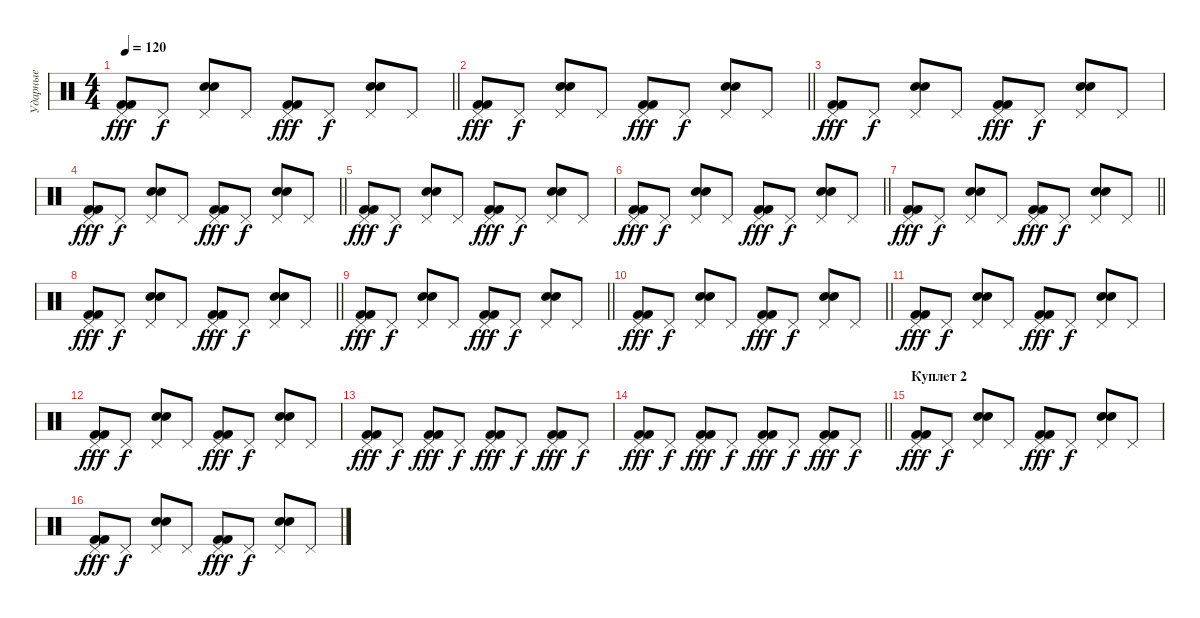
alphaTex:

\track ("Ударные" "Ударные") {solo instrument percussion}
\staff {score}
\articulation defaults
\ts (4 4)
\tempo 120
\clef neutral
\barLineRight lightlight
\ks c
("Kick (hit) 2" "Kick (hit) 2" "Pedal Hi-Hat (hit)").8{dy fff} "Pedal Hi-Hat (hit)".8{dy f} ("Electric Snare (hit)" "Electric Snare (hit)" "Pedal Hi-Hat (hit)").8 "Pedal Hi-Hat (hit)".8 ("Kick (hit) 2" "Kick (hit) 2" "Pedal Hi-Hat (hit)").8{dy fff} "Pedal Hi-Hat (hit)".8{dy f} ("Electric Snare (hit)" "Electric Snare (hit)" "Pedal Hi-Hat (hit)").8 "Pedal Hi-Hat (hit)".8 |
\barLineRight lightlight
("Kick (hit) 2" "Kick (hit) 2" "Pedal Hi-Hat (hit)").8{dy fff} "Pedal Hi-Hat (hit)".8{dy f} ("Electric Snare (hit)" "Electric Snare (hit)" "Pedal Hi-Hat (hit)").8 "Pedal Hi-Hat (hit)".8 ("Kick (hit) 2" "Kick (hit) 2" "Pedal Hi-Hat (hit)").8{dy fff} "Pedal Hi-Hat (hit)".8{dy f} ("Electric Snare (hit)" "Electric Snare (hit)" "Pedal Hi-Hat (hit)").8 "Pedal Hi-Hat (hit)".8 |
("Kick (hit) 2" "Kick (hit) 2" "Pedal Hi-Hat (hit)").8{dy fff} "Pedal Hi-Hat (hit)".8{dy f} ("Electric Snare (hit)" "Electric Snare (hit)" "Pedal Hi-Hat (hit)").8 "Pedal Hi-Hat (hit)".8 ("Kick (hit) 2" "Kick (hit) 2" "Pedal Hi-Hat (hit)").8{dy fff} "Pedal Hi-Hat (hit)".8{dy f} ("Electric Snare (hit)" "Electric Snare (hit)" "Pedal Hi-Hat (hit)").8 "Pedal Hi-Hat (hit)".8 |
\barLineRight lightlight
("Kick (hit) 2" "Kick (hit) 2" "Pedal Hi-Hat (hit)").8{dy fff} "Pedal Hi-Hat (hit)".8{dy f} ("Electric Snare (hit)" "Electric Snare (hit)" "Pedal Hi-Hat (hit)").8 "Pedal Hi-Hat (hit)".8 ("Kick (hit) 2" "Kick (hit) 2" "Pedal Hi-Hat (hit)").8{dy fff} "Pedal Hi-Hat (hit)".8{dy f} ("Electric Snare (hit)" "Electric Snare (hit)" "Pedal Hi-Hat (hit)").8 "Pedal Hi-Hat (hit)".8 |
("Kick (hit) 2" "Kick (hit) 2" "Pedal Hi-Hat (hit)").8{dy fff} "Pedal Hi-Hat (hit)".8{dy f} ("Electric Snare (hit)" "Electric Snare (hit)" "Pedal Hi-Hat (hit)").8 "Pedal Hi-Hat (hit)".8 ("Kick (hit) 2" "Kick (hit) 2" "Pedal Hi-Hat (hit)").8{dy fff} "Pedal Hi-Hat (hit)".8{dy f} ("Electric Snare (hit)" "Electric Snare (hit)" "Pedal Hi-Hat (hit)").8 "Pedal Hi-Hat (hit)".8 |
\barLineRight lightlight
("Kick (hit) 2" "Kick (hit) 2" "Pedal Hi-Hat (hit)").8{dy fff} "Pedal Hi-Hat (hit)".8{dy f} ("Electric Snare (hit)" "Electric Snare (hit)" "Pedal Hi-Hat (hit)").8 "Pedal Hi-Hat (hit)".8 ("Kick (hit) 2" "Kick (hit) 2" "Pedal Hi-Hat (hit)").8{dy fff} "Pedal Hi-Hat (hit)".8{dy f} ("Electric Snare (hit)" "Electric Snare (hit)" "Pedal Hi-Hat (hit)").8 "Pedal Hi-Hat (hit)".8 |
\barLineRight lightlight
("Kick (hit) 2" "Kick (hit) 2" "Pedal Hi-Hat (hit)").8{dy fff} "Pedal Hi-Hat (hit)".8{dy f} ("Electric Snare (hit)" "Electric Snare (hit)" "Pedal Hi-Hat (hit)").8 "Pedal Hi-Hat (hit)".8 ("Kick (hit) 2" "Kick (hit) 2" "Pedal Hi-Hat (hit)").8{dy fff} "Pedal Hi-Hat (hit)".8{dy f} ("Electric Snare (hit)" "Electric Snare (hit)" "Pedal Hi-Hat (hit)").8 "Pedal Hi-Hat (hit)".8 |
\barLineRight lightlight
("Kick (hit) 2" "Kick (hit) 2" "Pedal Hi-Hat (hit)").8{dy fff} "Pedal Hi-Hat (hit)".8{dy f} ("Electric Snare (hit)" "Electric Snare (hit)" "Pedal Hi-Hat (hit)").8 "Pedal Hi-Hat (hit)".8 ("Kick (hit) 2" "Kick (hit) 2" "Pedal Hi-Hat (hit)").8{dy fff} "Pedal Hi-Hat (hit)".8{dy f} ("Electric Snare (hit)" "Electric Snare (hit)" "Pedal Hi-Hat (hit)").8 "Pedal Hi-Hat (hit)".8 |
\barLineRight lightlight
("Kick (hit) 2" "Kick (hit) 2" "Pedal Hi-Hat (hit)").8{dy fff} "Pedal Hi-Hat (hit)".8{dy f} ("Electric Snare (hit)" "Electric Snare (hit)" "Pedal Hi-Hat (hit)").8 "Pedal Hi-Hat (hit)".8 ("Kick (hit) 2" "Kick (hit) 2" "Pedal Hi-Hat (hit)").8{dy fff} "Pedal Hi-Hat (hit)".8{dy f} ("Electric Snare (hit)" "Electric Snare (hit)" "Pedal Hi-Hat (hit)").8 "Pedal Hi-Hat (hit)".8 |
\barLineRight lightlight
("Kick (hit) 2" "Kick (hit) 2" "Pedal Hi-Hat (hit)").8{dy fff} "Pedal Hi-Hat (hit)".8{dy f} ("Electric Snare (hit)" "Electric Snare (hit)" "Pedal Hi-Hat (hit)").8 "Pedal Hi-Hat (hit)".8 ("Kick (hit) 2" "Kick (hit) 2" "Pedal Hi-Hat (hit)").8{dy fff} "Pedal Hi-Hat (hit)".8{dy f} ("Electric Snare (hit)" "Electric Snare (hit)" "Pedal Hi-Hat (hit)").8 "Pedal Hi-Hat (hit)".8 |
("Kick (hit) 2" "Kick (hit) 2" "Pedal Hi-Hat (hit)").8{dy fff} "Pedal Hi-Hat (hit)".8{dy f} ("Electric Snare (hit)" "Electric Snare (hit)" "Pedal Hi-Hat (hit)").8 "Pedal Hi-Hat (hit)".8 ("Kick (hit) 2" "Kick (hit) 2" "Pedal Hi-Hat (hit)").8{dy fff} "Pedal Hi-Hat (hit)".8{dy f} ("Electric Snare (hit)" "Electric Snare (hit)" "Pedal Hi-Hat (hit)").8 "Pedal Hi-Hat (hit)".8 |
("Kick (hit) 2" "Kick (hit) 2" "Pedal Hi-Hat (hit)").8{dy fff} "Pedal Hi-Hat (hit)".8{dy f} ("Electric Snare (hit)" "Electric Snare (hit)" "Pedal Hi-Hat (hit)").8 "Pedal Hi-Hat (hit)".8 ("Kick (hit) 2" "Kick (hit) 2" "Pedal Hi-Hat (hit)").8{dy fff} "Pedal Hi-Hat (hit)".8{dy f} ("Electric Snare (hit)" "Electric Snare (hit)" "Pedal Hi-Hat (hit)").8 "Pedal Hi-Hat (hit)".8 |
("Kick (hit) 2" "Kick (hit) 2" "Pedal Hi-Hat (hit)").8{dy fff} "Pedal Hi-Hat (hit)".8{dy f} ("Kick (hit) 2" "Kick (hit) 2" "Pedal Hi-Hat (hit)").8{dy fff} "Pedal Hi-Hat (hit)".8{dy f} ("Kick (hit) 2" "Kick (hit) 2" "Pedal Hi-Hat (hit)").8{dy fff} "Pedal Hi-Hat (hit)".8{dy f} ("Kick (hit) 2" "Kick (hit) 2" "Pedal Hi-Hat (hit)").8{dy fff} "Pedal Hi-Hat (hit)".8{dy f} |
\barLineRight lightlight
("Kick (hit) 2" "Kick (hit) 2" "Pedal Hi-Hat (hit)").8{dy fff} "Pedal Hi-Hat (hit)".8{dy f} ("Kick (hit) 2" "Kick (hit) 2" "Pedal Hi-Hat (hit)").8{dy fff} "Pedal Hi-Hat (hit)".8{dy f} ("Kick (hit) 2" "Kick (hit) 2" "Pedal Hi-Hat (hit)").8{dy fff} "Pedal Hi-Hat (hit)".8{dy f} ("Kick (hit) 2" "Kick (hit) 2" "Pedal Hi-Hat (hit)").8{dy fff} "Pedal Hi-Hat (hit)".8{dy f} |
\section ("" "Куплет 2")
("Kick (hit) 2" "Kick (hit) 2" "Pedal Hi-Hat (hit)").8{dy fff} "Pedal Hi-Hat (hit)".8{dy f} ("Electric Snare (hit)" "Electric Snare (hit)" "Pedal Hi-Hat (hit)").8 "Pedal Hi-Hat (hit)".8 ("Kick (hit) 2" "Kick (hit) 2" "Pedal Hi-Hat (hit)").8{dy fff} "Pedal Hi-Hat (hit)".8{dy f} ("Electric Snare (hit)" "Electric Snare (hit)" "Pedal Hi-Hat (hit)").8 "Pedal Hi-Hat (hit)".8 |
("Kick (hit) 2" "Kick (hit) 2" "Pedal Hi-Hat (hit)").8{dy fff} "Pedal Hi-Hat (hit)".8{dy f} ("Electric Snare (hit)" "Electric Snare (hit)" "Pedal Hi-Hat (hit)").8 "Pedal Hi-Hat (hit)".8 ("Kick (hit) 2" "Kick (hit) 2" "Pedal Hi-Hat (hit)").8{dy fff} "Pedal Hi-Hat (hit)".8{dy f} ("Electric Snare (hit)" "Electric Snare (hit)" "Pedal Hi-Hat (hit)").8 "Pedal Hi-Hat (hit)".8
